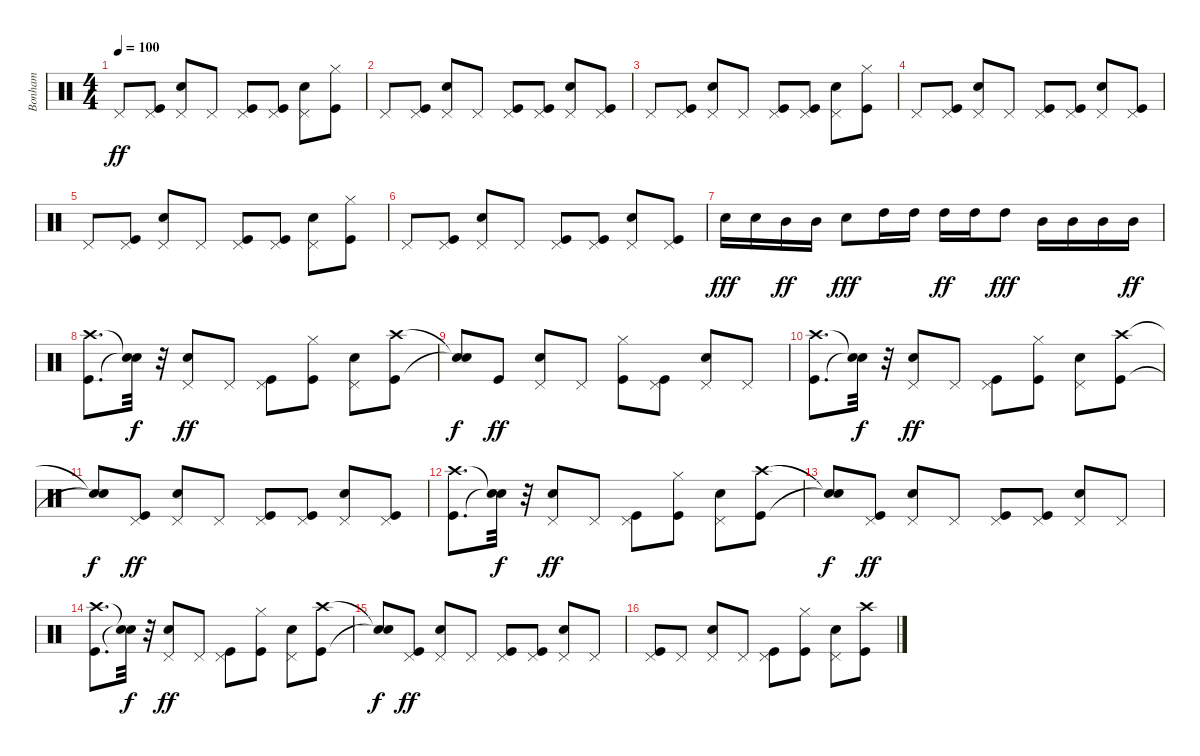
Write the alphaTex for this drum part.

\track ("Bonham" "Bonham") {instrument percussion}
\staff {score}
\articulation defaults
\ts (4 4)
\tempo 100
\clef neutral
\ks c "Pedal Hi-Hat (hit)".8{dy ff}
("Kick (hit)" "Pedal Hi-Hat (hit)").8 ("Snare (hit) 2" "Pedal Hi-Hat (hit)").8 "Pedal Hi-Hat (hit)".8 ("Kick (hit)" "Pedal Hi-Hat (hit)").8 ("Kick (hit)" "Pedal Hi-Hat (hit)").8 ("Snare (hit) 2" "Pedal Hi-Hat (hit)").8 ("Kick (hit)" "Hi-Hat (closed)").8 |
"Pedal Hi-Hat (hit)".8 ("Kick (hit)" "Pedal Hi-Hat (hit)").8 ("Snare (hit) 2" "Pedal Hi-Hat (hit)").8 "Pedal Hi-Hat (hit)".8 ("Kick (hit)" "Pedal Hi-Hat (hit)").8 ("Kick (hit)" "Pedal Hi-Hat (hit)").8 ("Snare (hit) 2" "Pedal Hi-Hat (hit)").8 ("Kick (hit)" "Pedal Hi-Hat (hit)").8 |
"Pedal Hi-Hat (hit)".8 ("Kick (hit)" "Pedal Hi-Hat (hit)").8 ("Snare (hit) 2" "Pedal Hi-Hat (hit)").8 "Pedal Hi-Hat (hit)".8 ("Kick (hit)" "Pedal Hi-Hat (hit)").8 ("Kick (hit)" "Pedal Hi-Hat (hit)").8 ("Snare (hit) 2" "Pedal Hi-Hat (hit)").8 ("Kick (hit)" "Hi-Hat (closed)").8 |
"Pedal Hi-Hat (hit)".8 ("Kick (hit)" "Pedal Hi-Hat (hit)").8 ("Snare (hit) 2" "Pedal Hi-Hat (hit)").8 "Pedal Hi-Hat (hit)".8 ("Kick (hit)" "Pedal Hi-Hat (hit)").8 ("Kick (hit)" "Pedal Hi-Hat (hit)").8 ("Snare (hit) 2" "Pedal Hi-Hat (hit)").8 ("Kick (hit)" "Pedal Hi-Hat (hit)").8 |
"Pedal Hi-Hat (hit)".8 ("Kick (hit)" "Pedal Hi-Hat (hit)").8 ("Snare (hit) 2" "Pedal Hi-Hat (hit)").8 "Pedal Hi-Hat (hit)".8 ("Kick (hit)" "Pedal Hi-Hat (hit)").8 ("Kick (hit)" "Pedal Hi-Hat (hit)").8 ("Snare (hit) 2" "Pedal Hi-Hat (hit)").8 ("Kick (hit)" "Hi-Hat (closed)").8 |
"Pedal Hi-Hat (hit)".8 ("Kick (hit)" "Pedal Hi-Hat (hit)").8 ("Snare (hit) 2" "Pedal Hi-Hat (hit)").8 "Pedal Hi-Hat (hit)".8 ("Kick (hit)" "Pedal Hi-Hat (hit)").8 ("Kick (hit)" "Pedal Hi-Hat (hit)").8 ("Snare (hit) 2" "Pedal Hi-Hat (hit)").8 ("Kick (hit)" "Pedal Hi-Hat (hit)").8 |
"Snare (hit) 2".16{dy fff} "Snare (hit) 2".16 "Mid Tom (hit)".16{dy ff} "Mid Tom (hit)".16 "Snare (hit) 2".8{dy fff} "High Tom (hit)".16 "High Tom (hit)".16 "High Tom (hit)".16{dy ff} "High Tom (hit)".16 "High Tom (hit)".8{dy fff} "Mid Tom (hit)".16 "Mid Tom (hit)".16 "Mid Tom (hit)".16 "Mid Tom (hit)".16{dy ff} |
("Kick (hit)" "Crash high (hit)").8{d} ("Snare (hit)"{t} "Snare (hit)"{t}).32{dy f} r.32 ("Snare (hit) 2" "Pedal Hi-Hat (hit)").8{dy ff} "Pedal Hi-Hat (hit)".8 ("Kick (hit)" "Pedal Hi-Hat (hit)").8 ("Kick (hit)" "Hi-Hat (closed)").8 ("Snare (hit) 2" "Pedal Hi-Hat (hit)").8 ("Kick (hit)" "Crash high (hit)").8 |
("Snare (hit)"{t} "Snare (hit)"{t}).8{dy f} "Kick (hit)".8{dy ff} ("Snare (hit) 2" "Pedal Hi-Hat (hit)").8 "Pedal Hi-Hat (hit)".8 ("Kick (hit)" "Hi-Hat (closed)").8 ("Kick (hit)" "Pedal Hi-Hat (hit)").8 ("Snare (hit) 2" "Pedal Hi-Hat (hit)").8 "Pedal Hi-Hat (hit)".8 |
("Kick (hit)" "Crash high (hit)").8{d} ("Snare (hit)"{t} "Snare (hit)"{t}).32{dy f} r.32 ("Snare (hit) 2" "Pedal Hi-Hat (hit)").8{dy ff} "Pedal Hi-Hat (hit)".8 ("Kick (hit)" "Pedal Hi-Hat (hit)").8 ("Kick (hit)" "Hi-Hat (closed)").8 ("Snare (hit) 2" "Pedal Hi-Hat (hit)").8 ("Kick (hit)" "Crash high (hit)").8 |
("Snare (hit)"{t} "Snare (hit)"{t}).8{dy f} ("Kick (hit)" "Pedal Hi-Hat (hit)").8{dy ff} ("Snare (hit) 2" "Pedal Hi-Hat (hit)").8 "Pedal Hi-Hat (hit)".8 ("Kick (hit)" "Pedal Hi-Hat (hit)").8 ("Kick (hit)" "Pedal Hi-Hat (hit)").8 ("Snare (hit) 2" "Pedal Hi-Hat (hit)").8 ("Kick (hit)" "Pedal Hi-Hat (hit)").8 |
("Kick (hit)" "Crash high (hit)").8{d} ("Snare (hit)"{t} "Snare (hit)"{t}).32{dy f} r.32 ("Snare (hit) 2" "Pedal Hi-Hat (hit)").8{dy ff} "Pedal Hi-Hat (hit)".8 ("Kick (hit)" "Pedal Hi-Hat (hit)").8 ("Kick (hit)" "Hi-Hat (closed)").8 ("Snare (hit) 2" "Pedal Hi-Hat (hit)").8 ("Kick (hit)" "Crash high (hit)").8 |
("Snare (hit)"{t} "Snare (hit)"{t}).8{dy f} ("Kick (hit)" "Pedal Hi-Hat (hit)").8{dy ff} ("Snare (hit) 2" "Pedal Hi-Hat (hit)").8 "Pedal Hi-Hat (hit)".8 ("Kick (hit)" "Pedal Hi-Hat (hit)").8 ("Kick (hit)" "Pedal Hi-Hat (hit)").8 ("Snare (hit) 2" "Pedal Hi-Hat (hit)").8 "Pedal Hi-Hat (hit)".8 |
("Kick (hit)" "Crash high (hit)").8{d} ("Snare (hit)"{t} "Snare (hit)"{t}).32{dy f} r.32 ("Snare (hit) 2" "Pedal Hi-Hat (hit)").8{dy ff} "Pedal Hi-Hat (hit)".8 ("Kick (hit)" "Pedal Hi-Hat (hit)").8 ("Kick (hit)" "Hi-Hat (closed)").8 ("Snare (hit) 2" "Pedal Hi-Hat (hit)").8 ("Kick (hit)" "Crash high (hit)").8 |
("Snare (hit)"{t} "Snare (hit)"{t}).8{dy f} ("Kick (hit)" "Pedal Hi-Hat (hit)").8{dy ff} ("Snare (hit) 2" "Pedal Hi-Hat (hit)").8 "Pedal Hi-Hat (hit)".8 ("Kick (hit)" "Pedal Hi-Hat (hit)").8 ("Kick (hit)" "Pedal Hi-Hat (hit)").8 ("Snare (hit) 2" "Pedal Hi-Hat (hit)").8 "Pedal Hi-Hat (hit)".8 |
("Kick (hit)" "Pedal Hi-Hat (hit)").8 "Pedal Hi-Hat (hit)".8 ("Snare (hit) 2" "Pedal Hi-Hat (hit)").8 "Pedal Hi-Hat (hit)".8 ("Kick (hit)" "Pedal Hi-Hat (hit)").8 ("Kick (hit)" "Hi-Hat (closed)").8 ("Snare (hit) 2" "Pedal Hi-Hat (hit)").8 ("Kick (hit)" "Crash high (hit)").8
